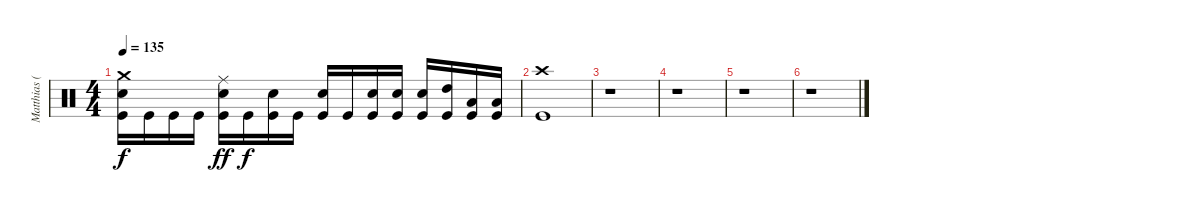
\track ("Matthias (Drums)" "Matthias (") {instrument percussion}
\staff {score}
\articulation defaults
\ts (4 4)
\tempo 135
\clef neutral
\ks c
("Crash medium (hit)" "Electric Snare (hit)" "Kick (hit)").16{dy f} "Kick (hit)".16 "Kick (hit)".16 "Kick (hit)".16 ("Ride (middle)" "Electric Snare (hit)" "Kick (hit)").16{dy ff} "Kick (hit)".16{dy f} ("Electric Snare (hit)" "Kick (hit)").16 "Kick (hit)".16 ("Electric Snare (hit)" "Kick (hit)").16 "Kick (hit)".16 ("Electric Snare (hit)" "Kick (hit)").16 ("Electric Snare (hit)" "Kick (hit)").16 ("Electric Snare (hit)" "Kick (hit)").16 ("High Tom (hit)" "Kick (hit)").16 ("Low Tom (hit)" "Kick (hit)").16 ("Low Tom (hit)" "Kick (hit)").16 |
("Crash high (hit)" "Kick (hit)").1 |
r.1 |
r.1 |
r.1 |
r.1
